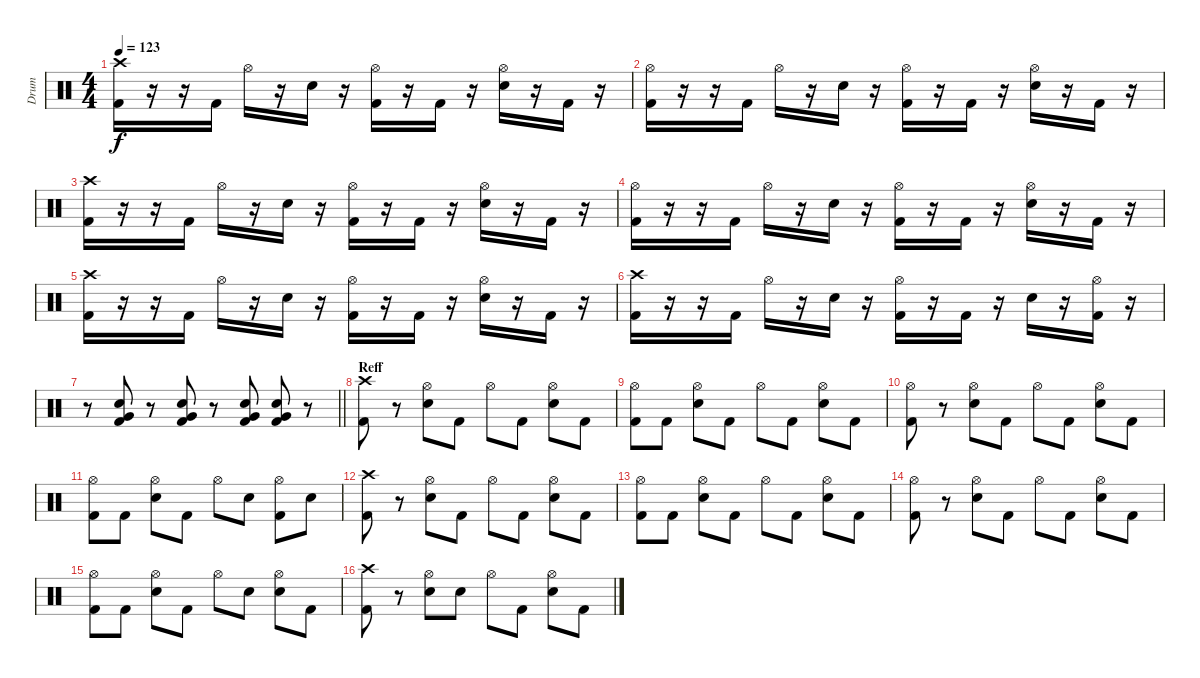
\track ("Drum" "Drum") {instrument percussion}
\staff {score}
\articulation defaults
\ts (4 4)
\tempo 123
\clef neutral
\ks c
("Crash high (hit)" "Kick (hit) 2").16{dy f} r.16 r.16 "Kick (hit) 2".16 "Hi-Hat (open)".16 r.16 "Electric Snare (hit)".16 r.16 ("Hi-Hat (open)" "Kick (hit) 2").16 r.16 "Kick (hit) 2".16 r.16 ("Hi-Hat (open)" "Electric Snare (hit)").16 r.16 "Kick (hit) 2".16 r.16 |
("Hi-Hat (open)" "Kick (hit) 2").16 r.16 r.16 "Kick (hit) 2".16 "Hi-Hat (open)".16 r.16 "Electric Snare (hit)".16 r.16 ("Hi-Hat (open)" "Kick (hit) 2").16 r.16 "Kick (hit) 2".16 r.16 ("Hi-Hat (open)" "Electric Snare (hit)").16 r.16 "Kick (hit) 2".16 r.16 |
("Crash high (hit)" "Kick (hit) 2").16 r.16 r.16 "Kick (hit) 2".16 "Hi-Hat (open)".16 r.16 "Electric Snare (hit)".16 r.16 ("Hi-Hat (open)" "Kick (hit) 2").16 r.16 "Kick (hit) 2".16 r.16 ("Hi-Hat (open)" "Electric Snare (hit)").16 r.16 "Kick (hit) 2".16 r.16 |
("Hi-Hat (open)" "Kick (hit) 2").16 r.16 r.16 "Kick (hit) 2".16 "Hi-Hat (open)".16 r.16 "Electric Snare (hit)".16 r.16 ("Hi-Hat (open)" "Kick (hit) 2").16 r.16 "Kick (hit) 2".16 r.16 ("Hi-Hat (open)" "Electric Snare (hit)").16 r.16 "Kick (hit) 2".16 r.16 |
("Crash high (hit)" "Kick (hit) 2").16 r.16 r.16 "Kick (hit) 2".16 "Hi-Hat (open)".16 r.16 "Electric Snare (hit)".16 r.16 ("Hi-Hat (open)" "Kick (hit) 2").16 r.16 "Kick (hit) 2".16 r.16 ("Hi-Hat (open)" "Electric Snare (hit)").16 r.16 "Kick (hit) 2".16 r.16 |
("Crash high (hit)" "Kick (hit) 2").16 r.16 r.16 "Kick (hit) 2".16 "Hi-Hat (open)".16 r.16 "Electric Snare (hit)".16 r.16 ("Hi-Hat (open)" "Kick (hit) 2").16 r.16 "Kick (hit) 2".16 r.16 "Electric Snare (hit)".16 r.16 ("Hi-Hat (open)" "Kick (hit) 2").16 r.16 |
\barLineRight lightlight
r.8 ("Electric Snare (hit)" "Very Low Tom (hit)" "Kick (hit) 2").8 r.8 ("Electric Snare (hit)" "Very Low Tom (hit)" "Kick (hit) 2").8 r.8 ("Electric Snare (hit)" "Very Low Tom (hit)" "Kick (hit) 2").8 ("Electric Snare (hit)" "Very Low Tom (hit)" "Kick (hit) 2").8 r.8 |
\section ("" "Reff ")
("Crash high (hit)" "Kick (hit) 2").8 r.8 ("Hi-Hat (open)" "Electric Snare (hit)").8 "Kick (hit) 2".8 "Hi-Hat (open)".8 "Kick (hit) 2".8 ("Hi-Hat (open)" "Electric Snare (hit)").8 "Kick (hit) 2".8 |
("Hi-Hat (open)" "Kick (hit) 2").8 "Kick (hit) 2".8 ("Hi-Hat (open)" "Electric Snare (hit)").8 "Kick (hit) 2".8 "Hi-Hat (open)".8 "Kick (hit) 2".8 ("Hi-Hat (open)" "Electric Snare (hit)").8 "Kick (hit) 2".8 |
("Hi-Hat (open)" "Kick (hit) 2").8 r.8 ("Hi-Hat (open)" "Electric Snare (hit)").8 "Kick (hit) 2".8 "Hi-Hat (open)".8 "Kick (hit) 2".8 ("Hi-Hat (open)" "Electric Snare (hit)").8 "Kick (hit) 2".8 |
("Hi-Hat (open)" "Kick (hit) 2").8 "Kick (hit) 2".8 ("Hi-Hat (open)" "Electric Snare (hit)").8 "Kick (hit) 2".8 "Hi-Hat (open)".8 "Electric Snare (hit)".8 ("Hi-Hat (open)" "Kick (hit) 2").8 "Electric Snare (hit)".8 |
("Crash high (hit)" "Kick (hit) 2").8 r.8 ("Hi-Hat (open)" "Electric Snare (hit)").8 "Kick (hit) 2".8 "Hi-Hat (open)".8 "Kick (hit) 2".8 ("Hi-Hat (open)" "Electric Snare (hit)").8 "Kick (hit) 2".8 |
("Hi-Hat (open)" "Kick (hit) 2").8 "Kick (hit) 2".8 ("Hi-Hat (open)" "Electric Snare (hit)").8 "Kick (hit) 2".8 "Hi-Hat (open)".8 "Kick (hit) 2".8 ("Hi-Hat (open)" "Electric Snare (hit)").8 "Kick (hit) 2".8 |
("Hi-Hat (open)" "Kick (hit) 2").8 r.8 ("Hi-Hat (open)" "Electric Snare (hit)").8 "Kick (hit) 2".8 "Hi-Hat (open)".8 "Kick (hit) 2".8 ("Hi-Hat (open)" "Electric Snare (hit)").8 "Kick (hit) 2".8 |
("Hi-Hat (open)" "Kick (hit) 2").8 "Kick (hit) 2".8 ("Hi-Hat (open)" "Electric Snare (hit)").8 "Kick (hit) 2".8 "Hi-Hat (open)".8 "Electric Snare (hit)".8 ("Hi-Hat (open)" "Electric Snare (hit)").8 "Kick (hit) 2".8 |
("Crash high (hit)" "Kick (hit) 2").8 r.8 ("Hi-Hat (open)" "Electric Snare (hit)").8 "Electric Snare (hit)".8 "Hi-Hat (open)".8 "Kick (hit) 2".8 ("Hi-Hat (open)" "Electric Snare (hit)").8 "Kick (hit) 2".8
